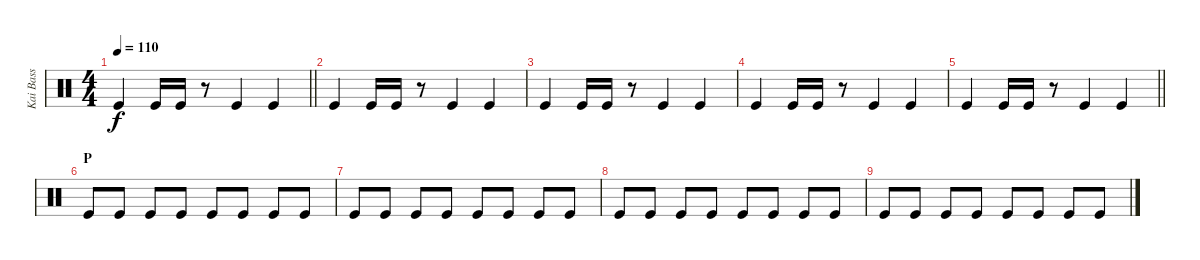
\track ("Kai Bass" "Kai Bass") {instrument percussion}
\staff {score}
\articulation defaults
\ts (4 4)
\tempo 110
\clef neutral
\barLineRight lightlight
\ks c "Kick (hit)".4{dy f} "Kick (hit)".16 "Kick (hit)".16
r.8 "Kick (hit)".4 "Kick (hit)".4 |
"Kick (hit)".4 "Kick (hit)".16 "Kick (hit)".16 r.8 "Kick (hit)".4 "Kick (hit)".4 |
"Kick (hit)".4 "Kick (hit)".16 "Kick (hit)".16 r.8 "Kick (hit)".4 "Kick (hit)".4 |
"Kick (hit)".4 "Kick (hit)".16 "Kick (hit)".16 r.8 "Kick (hit)".4 "Kick (hit)".4 |
\barLineRight lightlight "Kick (hit)".4 "Kick (hit)".16 "Kick (hit)".16
r.8 "Kick (hit)".4 "Kick (hit)".4 |
\section ("" "P")
"Kick (hit)".8 "Kick (hit)".8 "Kick (hit)".8 "Kick (hit)".8 "Kick (hit)".8 "Kick (hit)".8 "Kick (hit)".8 "Kick (hit)".8 |
"Kick (hit)".8 "Kick (hit)".8 "Kick (hit)".8 "Kick (hit)".8 "Kick (hit)".8 "Kick (hit)".8 "Kick (hit)".8 "Kick (hit)".8 |
"Kick (hit)".8 "Kick (hit)".8 "Kick (hit)".8 "Kick (hit)".8 "Kick (hit)".8 "Kick (hit)".8 "Kick (hit)".8 "Kick (hit)".8 |
"Kick (hit)".8 "Kick (hit)".8 "Kick (hit)".8 "Kick (hit)".8 "Kick (hit)".8 "Kick (hit)".8 "Kick (hit)".8 "Kick (hit)".8
